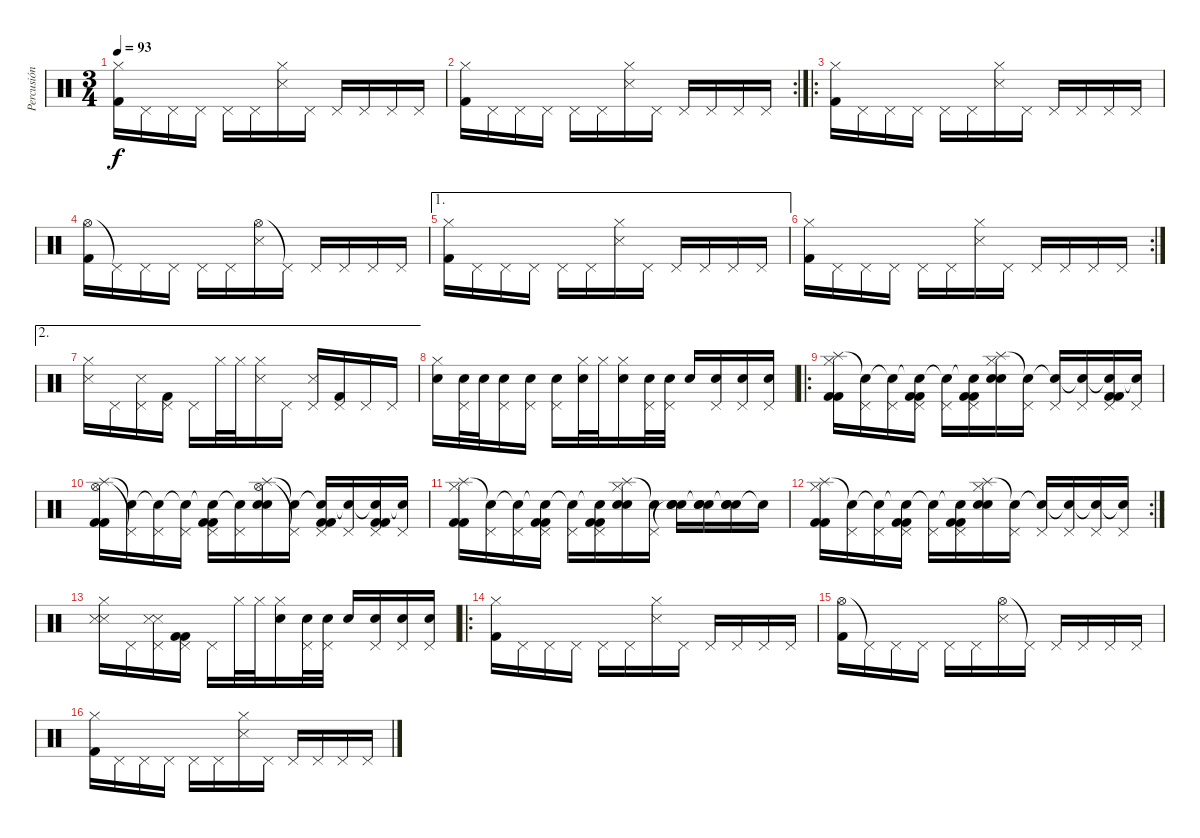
\track ("Percusión" "Percusión") {instrument percussion}
\staff {score}
\articulation defaults
\ts (3 4)
\tempo 93
\clef neutral
\ks c
("Hi-Hat (closed)" "Kick (hit) 2").16{dy f} "Pedal Hi-Hat (hit)".16 "Pedal Hi-Hat (hit)".16 "Pedal Hi-Hat (hit)".16 "Pedal Hi-Hat (hit)".16 "Pedal Hi-Hat (hit)".16 ("Hi-Hat (closed)" "Snare (side stick) 3").16 "Pedal Hi-Hat (hit)".16 "Pedal Hi-Hat (hit)".16 "Pedal Hi-Hat (hit)".16 "Pedal Hi-Hat (hit)".16 "Pedal Hi-Hat (hit)".16 |
\rc 2
("Hi-Hat (closed)" "Kick (hit) 2").16 "Pedal Hi-Hat (hit)".16 "Pedal Hi-Hat (hit)".16 "Pedal Hi-Hat (hit)".16 "Pedal Hi-Hat (hit)".16 "Pedal Hi-Hat (hit)".16 ("Hi-Hat (closed)" "Snare (side stick) 3").16 "Pedal Hi-Hat (hit)".16 "Pedal Hi-Hat (hit)".16 "Pedal Hi-Hat (hit)".16 "Pedal Hi-Hat (hit)".16 "Pedal Hi-Hat (hit)".16 |
\ro
("Hi-Hat (closed)" "Kick (hit) 2").16 "Pedal Hi-Hat (hit)".16 "Pedal Hi-Hat (hit)".16 "Pedal Hi-Hat (hit)".16 "Pedal Hi-Hat (hit)".16 "Pedal Hi-Hat (hit)".16 ("Hi-Hat (closed)" "Snare (side stick) 3").16 "Pedal Hi-Hat (hit)".16 "Pedal Hi-Hat (hit)".16 "Pedal Hi-Hat (hit)".16 "Pedal Hi-Hat (hit)".16 "Pedal Hi-Hat (hit)".16 |
("Hi-Hat (open)" "Kick (hit) 2").16 "Pedal Hi-Hat (hit)"{t}.16 "Pedal Hi-Hat (hit)".16 "Pedal Hi-Hat (hit)".16 "Pedal Hi-Hat (hit)".16 "Pedal Hi-Hat (hit)".16 ("Hi-Hat (open)" "Snare (side stick) 3").16 "Pedal Hi-Hat (hit)"{t}.16 "Pedal Hi-Hat (hit)".16 "Pedal Hi-Hat (hit)".16 "Pedal Hi-Hat (hit)".16 "Pedal Hi-Hat (hit)".16 |
\ae 1
("Hi-Hat (closed)" "Kick (hit) 2").16 "Pedal Hi-Hat (hit)".16 "Pedal Hi-Hat (hit)".16 "Pedal Hi-Hat (hit)".16 "Pedal Hi-Hat (hit)".16 "Pedal Hi-Hat (hit)".16 ("Hi-Hat (closed)" "Snare (side stick) 3").16 "Pedal Hi-Hat (hit)".16 "Pedal Hi-Hat (hit)".16 "Pedal Hi-Hat (hit)".16 "Pedal Hi-Hat (hit)".16 "Pedal Hi-Hat (hit)".16 |
\rc 2
("Hi-Hat (closed)" "Kick (hit) 2").16 "Pedal Hi-Hat (hit)".16 "Pedal Hi-Hat (hit)".16 "Pedal Hi-Hat (hit)".16 "Pedal Hi-Hat (hit)".16 "Pedal Hi-Hat (hit)".16 ("Hi-Hat (closed)" "Snare (side stick) 3").16 "Pedal Hi-Hat (hit)".16 "Pedal Hi-Hat (hit)".16 "Pedal Hi-Hat (hit)".16 "Pedal Hi-Hat (hit)".16 "Pedal Hi-Hat (hit)".16 |
\ae 2
("Hi-Hat (closed)" "Snare (side stick) 3").16 "Pedal Hi-Hat (hit)".16 ("Pedal Hi-Hat (hit)" "Snare (side stick) 3").16 ("Pedal Hi-Hat (hit)" "Kick (hit) 2").16 "Pedal Hi-Hat (hit)".16 "Hi-Hat (closed)".32 "Hi-Hat (closed)".32 ("Hi-Hat (closed)" "Snare (side stick) 3").16 "Pedal Hi-Hat (hit)".16 ("Pedal Hi-Hat (hit)" "Snare (side stick) 3").16 ("Pedal Hi-Hat (hit)" "Kick (hit) 2").16 "Pedal Hi-Hat (hit)".16 "Pedal Hi-Hat (hit)".16 |
("Hi-Hat (closed)" "Electric Snare (hit)").16 ("Pedal Hi-Hat (hit)" "Electric Snare (hit)").32 "Electric Snare (hit)".32 ("Pedal Hi-Hat (hit)" "Electric Snare (hit)").16 ("Pedal Hi-Hat (hit)" "Electric Snare (hit)").16 ("Pedal Hi-Hat (hit)" "Electric Snare (hit)").16 ("Hi-Hat (closed)" "Electric Snare (hit)").32 "Hi-Hat (closed)".32 ("Hi-Hat (closed)" "Electric Snare (hit)").16 ("Pedal Hi-Hat (hit)" "Electric Snare (hit)").32 ("Pedal Hi-Hat (hit)" "Electric Snare (hit)").32 "Electric Snare (hit)".16 ("Pedal Hi-Hat (hit)" "Electric Snare (hit)").16 ("Pedal Hi-Hat (hit)" "Electric Snare (hit)").16 ("Pedal Hi-Hat (hit)" "Electric Snare (hit)").16 |
\ro
("Hi-Hat (closed)" "Splash (hit)" "Kick (hit) 2" "Kick (hit) 2").16 ("Pedal Hi-Hat (hit)" "Snare (hit)"{t}).16 ("Pedal Hi-Hat (hit)" "Snare (hit)"{t}).16 ("Pedal Hi-Hat (hit)" "Snare (hit)"{t} "Kick (hit) 2" "Kick (hit) 2").16 ("Pedal Hi-Hat (hit)" "Snare (hit)"{t}).16 ("Pedal Hi-Hat (hit)" "Snare (hit)"{t} "Kick (hit) 2" "Kick (hit) 2").16 ("Hi-Hat (closed)" "Splash (hit)" "Electric Snare (hit)" "Electric Snare (hit)").16 ("Pedal Hi-Hat (hit)" "Snare (hit)"{t}).16 ("Pedal Hi-Hat (hit)" "Snare (hit)"{t}).16 ("Pedal Hi-Hat (hit)" "Snare (hit)"{t}).16 ("Pedal Hi-Hat (hit)" "Snare (hit)"{t} "Kick (hit) 2" "Kick (hit) 2").16 ("Pedal Hi-Hat (hit)" "Snare (hit)"{t}).16 |
("Hi-Hat (open)" "Splash (hit)" "Kick (hit) 2" "Kick (hit) 2").16 ("Pedal Hi-Hat (hit)"{t} "Snare (hit)"{t}).16 ("Pedal Hi-Hat (hit)" "Snare (hit)"{t}).16 ("Pedal Hi-Hat (hit)" "Snare (hit)"{t}).16 ("Pedal Hi-Hat (hit)" "Snare (hit)"{t} "Kick (hit) 2" "Kick (hit) 2").16 ("Pedal Hi-Hat (hit)" "Snare (hit)"{t}).16 ("Hi-Hat (open)" "Splash (hit)" "Electric Snare (hit)" "Electric Snare (hit)").16 ("Pedal Hi-Hat (hit)"{t} "Snare (hit)"{t}).16 ("Pedal Hi-Hat (hit)" "Snare (hit)"{t} "Kick (hit) 2" "Kick (hit) 2").16 ("Pedal Hi-Hat (hit)" "Snare (hit)"{t}).16 ("Pedal Hi-Hat (hit)" "Snare (hit)"{t} "Kick (hit) 2" "Kick (hit) 2").16 ("Pedal Hi-Hat (hit)" "Snare (hit)"{t}).16 |
("Hi-Hat (closed)" "Splash (hit)" "Kick (hit) 2" "Kick (hit) 2").16 ("Pedal Hi-Hat (hit)" "Snare (hit)"{t}).16 ("Pedal Hi-Hat (hit)" "Snare (hit)"{t}).16 ("Pedal Hi-Hat (hit)" "Snare (hit)"{t} "Kick (hit) 2" "Kick (hit) 2").16 ("Pedal Hi-Hat (hit)" "Snare (hit)"{t}).16 ("Pedal Hi-Hat (hit)" "Snare (hit)"{t} "Kick (hit) 2" "Kick (hit) 2").16 ("Hi-Hat (closed)" "Splash (hit)" "Electric Snare (hit)" "Electric Snare (hit)").16 ("Pedal Hi-Hat (hit)" "Snare (hit)"{t}).16 ("Snare (hit)"{t} "Electric Snare (hit)" "Electric Snare (hit)").16 ("Snare (hit)"{t} "Electric Snare (hit)" "Electric Snare (hit)").16 ("Snare (hit)"{t} "Electric Snare (hit)" "Electric Snare (hit)").16 "Snare (hit)"{t}.16 |
\rc 2
("Hi-Hat (closed)" "Splash (hit)" "Kick (hit) 2" "Kick (hit) 2").16 ("Pedal Hi-Hat (hit)" "Snare (hit)"{t}).16 ("Pedal Hi-Hat (hit)" "Snare (hit)"{t}).16 ("Pedal Hi-Hat (hit)" "Snare (hit)"{t} "Kick (hit) 2" "Kick (hit) 2").16 ("Pedal Hi-Hat (hit)" "Snare (hit)"{t}).16 ("Pedal Hi-Hat (hit)" "Snare (hit)"{t} "Kick (hit) 2" "Kick (hit) 2").16 ("Hi-Hat (closed)" "Splash (hit)" "Electric Snare (hit)" "Electric Snare (hit)").16 ("Pedal Hi-Hat (hit)" "Snare (hit)"{t}).16 ("Pedal Hi-Hat (hit)" "Snare (hit)"{t}).16 ("Pedal Hi-Hat (hit)" "Snare (hit)"{t}).16 ("Pedal Hi-Hat (hit)" "Snare (hit)"{t}).16 ("Pedal Hi-Hat (hit)" "Snare (hit)"{t}).16 |
("Hi-Hat (closed)" "Snare (side stick) 3" "Snare (side stick) 3").16 "Pedal Hi-Hat (hit)".16 ("Pedal Hi-Hat (hit)" "Snare (side stick) 3" "Snare (side stick) 3").16 ("Pedal Hi-Hat (hit)" "Kick (hit) 2" "Kick (hit) 2").16 "Pedal Hi-Hat (hit)".16 "Hi-Hat (closed)".32 "Hi-Hat (closed)".32 ("Hi-Hat (closed)" "Electric Snare (hit)").16 ("Pedal Hi-Hat (hit)" "Electric Snare (hit)").32 ("Pedal Hi-Hat (hit)" "Electric Snare (hit)").32 "Electric Snare (hit)".16 ("Pedal Hi-Hat (hit)" "Electric Snare (hit)").16 ("Pedal Hi-Hat (hit)" "Electric Snare (hit)").16 ("Pedal Hi-Hat (hit)" "Electric Snare (hit)").16 |
\ro
("Hi-Hat (closed)" "Kick (hit) 2").16 "Pedal Hi-Hat (hit)".16 "Pedal Hi-Hat (hit)".16 "Pedal Hi-Hat (hit)".16 "Pedal Hi-Hat (hit)".16 "Pedal Hi-Hat (hit)".16 ("Hi-Hat (closed)" "Snare (side stick) 3").16 "Pedal Hi-Hat (hit)".16 "Pedal Hi-Hat (hit)".16 "Pedal Hi-Hat (hit)".16 "Pedal Hi-Hat (hit)".16 "Pedal Hi-Hat (hit)".16 |
("Hi-Hat (open)" "Kick (hit) 2").16 "Pedal Hi-Hat (hit)"{t}.16 "Pedal Hi-Hat (hit)".16 "Pedal Hi-Hat (hit)".16 "Pedal Hi-Hat (hit)".16 "Pedal Hi-Hat (hit)".16 ("Hi-Hat (open)" "Snare (side stick) 3").16 "Pedal Hi-Hat (hit)"{t}.16 "Pedal Hi-Hat (hit)".16 "Pedal Hi-Hat (hit)".16 "Pedal Hi-Hat (hit)".16 "Pedal Hi-Hat (hit)".16 |
("Hi-Hat (closed)" "Kick (hit) 2").16 "Pedal Hi-Hat (hit)".16 "Pedal Hi-Hat (hit)".16 "Pedal Hi-Hat (hit)".16 "Pedal Hi-Hat (hit)".16 "Pedal Hi-Hat (hit)".16 ("Hi-Hat (closed)" "Snare (side stick) 3").16 "Pedal Hi-Hat (hit)".16 "Pedal Hi-Hat (hit)".16 "Pedal Hi-Hat (hit)".16 "Pedal Hi-Hat (hit)".16 "Pedal Hi-Hat (hit)".16
